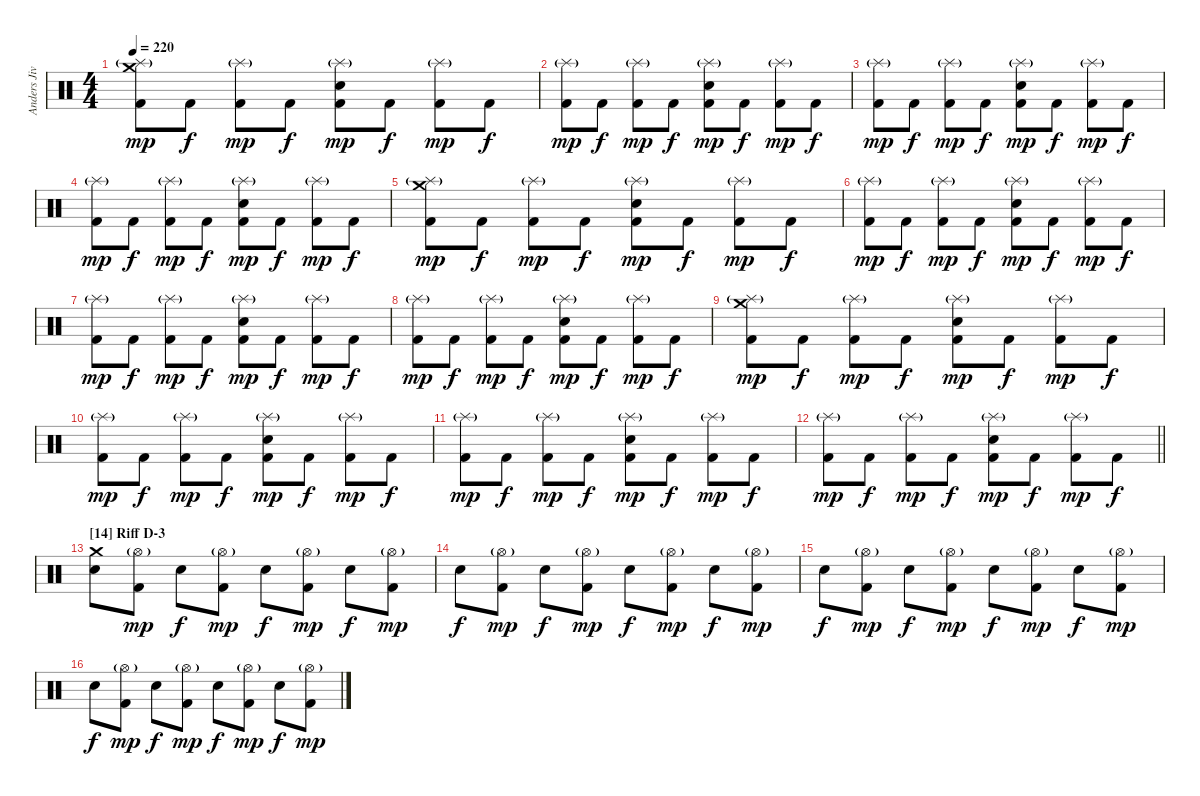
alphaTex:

\track ("Anders Jivarp" "Anders Jiv") {instrument percussion}
\staff {score}
\articulation defaults
\ts (4 4)
\tempo 220
\clef neutral
\ks c
("Crash medium (hit)" "Splash (hit)"{g} "Kick (hit) 2").8{dy mp} "Kick (hit) 2".8{dy f} ("Splash (hit)"{g} "Kick (hit) 2").8{dy mp} "Kick (hit) 2".8{dy f} ("Splash (hit)"{g} "Electric Snare (hit)" "Kick (hit) 2").8{dy mp} "Kick (hit) 2".8{dy f} ("Splash (hit)"{g} "Kick (hit) 2").8{dy mp} "Kick (hit) 2".8{dy f} |
("Splash (hit)"{g} "Kick (hit) 2").8{dy mp} "Kick (hit) 2".8{dy f} ("Splash (hit)"{g} "Kick (hit) 2").8{dy mp} "Kick (hit) 2".8{dy f} ("Splash (hit)"{g} "Electric Snare (hit)" "Kick (hit) 2").8{dy mp} "Kick (hit) 2".8{dy f} ("Splash (hit)"{g} "Kick (hit) 2").8{dy mp} "Kick (hit) 2".8{dy f} |
("Splash (hit)"{g} "Kick (hit) 2").8{dy mp} "Kick (hit) 2".8{dy f} ("Splash (hit)"{g} "Kick (hit) 2").8{dy mp} "Kick (hit) 2".8{dy f} ("Splash (hit)"{g} "Electric Snare (hit)" "Kick (hit) 2").8{dy mp} "Kick (hit) 2".8{dy f} ("Splash (hit)"{g} "Kick (hit) 2").8{dy mp} "Kick (hit) 2".8{dy f} |
("Splash (hit)"{g} "Kick (hit) 2").8{dy mp} "Kick (hit) 2".8{dy f} ("Splash (hit)"{g} "Kick (hit) 2").8{dy mp} "Kick (hit) 2".8{dy f} ("Splash (hit)"{g} "Electric Snare (hit)" "Kick (hit) 2").8{dy mp} "Kick (hit) 2".8{dy f} ("Splash (hit)"{g} "Kick (hit) 2").8{dy mp} "Kick (hit) 2".8{dy f} |
("Crash medium (hit)" "Splash (hit)"{g} "Kick (hit) 2").8{dy mp} "Kick (hit) 2".8{dy f} ("Splash (hit)"{g} "Kick (hit) 2").8{dy mp} "Kick (hit) 2".8{dy f} ("Splash (hit)"{g} "Electric Snare (hit)" "Kick (hit) 2").8{dy mp} "Kick (hit) 2".8{dy f} ("Splash (hit)"{g} "Kick (hit) 2").8{dy mp} "Kick (hit) 2".8{dy f} |
("Splash (hit)"{g} "Kick (hit) 2").8{dy mp} "Kick (hit) 2".8{dy f} ("Splash (hit)"{g} "Kick (hit) 2").8{dy mp} "Kick (hit) 2".8{dy f} ("Splash (hit)"{g} "Electric Snare (hit)" "Kick (hit) 2").8{dy mp} "Kick (hit) 2".8{dy f} ("Splash (hit)"{g} "Kick (hit) 2").8{dy mp} "Kick (hit) 2".8{dy f} |
("Splash (hit)"{g} "Kick (hit) 2").8{dy mp} "Kick (hit) 2".8{dy f} ("Splash (hit)"{g} "Kick (hit) 2").8{dy mp} "Kick (hit) 2".8{dy f} ("Splash (hit)"{g} "Electric Snare (hit)" "Kick (hit) 2").8{dy mp} "Kick (hit) 2".8{dy f} ("Splash (hit)"{g} "Kick (hit) 2").8{dy mp} "Kick (hit) 2".8{dy f} |
("Splash (hit)"{g} "Kick (hit) 2").8{dy mp} "Kick (hit) 2".8{dy f} ("Splash (hit)"{g} "Kick (hit) 2").8{dy mp} "Kick (hit) 2".8{dy f} ("Splash (hit)"{g} "Electric Snare (hit)" "Kick (hit) 2").8{dy mp} "Kick (hit) 2".8{dy f} ("Splash (hit)"{g} "Kick (hit) 2").8{dy mp} "Kick (hit) 2".8{dy f} |
("Crash medium (hit)" "Splash (hit)"{g} "Kick (hit) 2").8{dy mp} "Kick (hit) 2".8{dy f} ("Splash (hit)"{g} "Kick (hit) 2").8{dy mp} "Kick (hit) 2".8{dy f} ("Splash (hit)"{g} "Electric Snare (hit)" "Kick (hit) 2").8{dy mp} "Kick (hit) 2".8{dy f} ("Splash (hit)"{g} "Kick (hit) 2").8{dy mp} "Kick (hit) 2".8{dy f} |
("Splash (hit)"{g} "Kick (hit) 2").8{dy mp} "Kick (hit) 2".8{dy f} ("Splash (hit)"{g} "Kick (hit) 2").8{dy mp} "Kick (hit) 2".8{dy f} ("Splash (hit)"{g} "Electric Snare (hit)" "Kick (hit) 2").8{dy mp} "Kick (hit) 2".8{dy f} ("Splash (hit)"{g} "Kick (hit) 2").8{dy mp} "Kick (hit) 2".8{dy f} |
("Splash (hit)"{g} "Kick (hit) 2").8{dy mp} "Kick (hit) 2".8{dy f} ("Splash (hit)"{g} "Kick (hit) 2").8{dy mp} "Kick (hit) 2".8{dy f} ("Splash (hit)"{g} "Electric Snare (hit)" "Kick (hit) 2").8{dy mp} "Kick (hit) 2".8{dy f} ("Splash (hit)"{g} "Kick (hit) 2").8{dy mp} "Kick (hit) 2".8{dy f} |
\barLineRight lightlight
("Splash (hit)"{g} "Kick (hit) 2").8{dy mp} "Kick (hit) 2".8{dy f} ("Splash (hit)"{g} "Kick (hit) 2").8{dy mp} "Kick (hit) 2".8{dy f} ("Splash (hit)"{g} "Electric Snare (hit)" "Kick (hit) 2").8{dy mp} "Kick (hit) 2".8{dy f} ("Splash (hit)"{g} "Kick (hit) 2").8{dy mp} "Kick (hit) 2".8{dy f} |
\section ("" "[14] Riff D-3")
("Crash medium (hit)" "Snare (hit) 2").8 ("Hi-Hat (open)"{g} "Kick (hit) 2").8{dy mp} "Snare (hit) 2".8{dy f} ("Hi-Hat (open)"{g} "Kick (hit) 2").8{dy mp} "Snare (hit) 2".8{dy f} ("Hi-Hat (open)"{g} "Kick (hit) 2").8{dy mp} "Snare (hit) 2".8{dy f} ("Hi-Hat (open)"{g} "Kick (hit) 2").8{dy mp} |
"Snare (hit) 2".8{dy f} ("Hi-Hat (open)"{g} "Kick (hit) 2").8{dy mp} "Snare (hit) 2".8{dy f} ("Hi-Hat (open)"{g} "Kick (hit) 2").8{dy mp} "Snare (hit) 2".8{dy f} ("Hi-Hat (open)"{g} "Kick (hit) 2").8{dy mp} "Snare (hit) 2".8{dy f} ("Hi-Hat (open)"{g} "Kick (hit) 2").8{dy mp} |
"Snare (hit) 2".8{dy f} ("Hi-Hat (open)"{g} "Kick (hit) 2").8{dy mp} "Snare (hit) 2".8{dy f} ("Hi-Hat (open)"{g} "Kick (hit) 2").8{dy mp} "Snare (hit) 2".8{dy f} ("Hi-Hat (open)"{g} "Kick (hit) 2").8{dy mp} "Snare (hit) 2".8{dy f} ("Hi-Hat (open)"{g} "Kick (hit) 2").8{dy mp} |
"Snare (hit) 2".8{dy f} ("Hi-Hat (open)"{g} "Kick (hit) 2").8{dy mp} "Snare (hit) 2".8{dy f} ("Hi-Hat (open)"{g} "Kick (hit) 2").8{dy mp} "Snare (hit) 2".8{dy f} ("Hi-Hat (open)"{g} "Kick (hit) 2").8{dy mp} "Snare (hit) 2".8{dy f} ("Hi-Hat (open)"{g} "Kick (hit) 2").8{dy mp}
